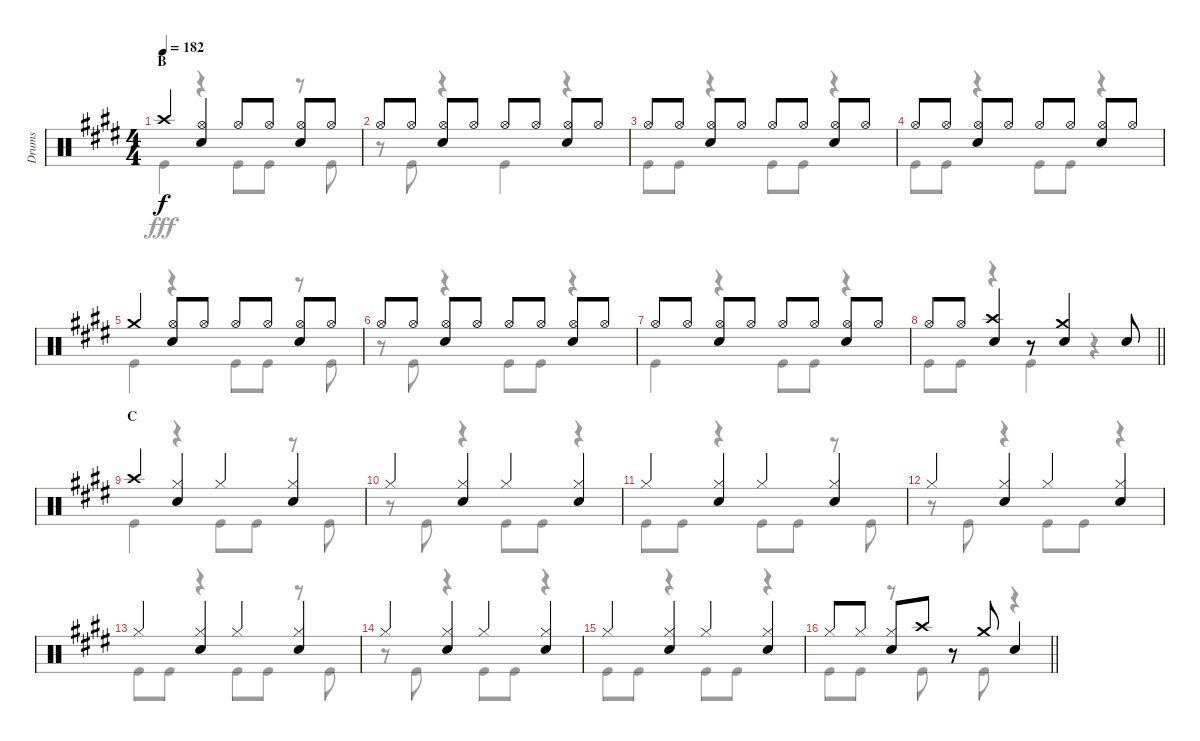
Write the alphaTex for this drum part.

\track ("Drums" "Drums") {instrument percussion}
\staff {score}
\articulation defaults
\voice
\ts (4 4)
\section ("" "B")
\tempo 182
\clef neutral
\ks e "Crash high (hit)".4{dy f}
("Hi-Hat (open)" "Snare (hit) 2").4 "Hi-Hat (open)".8 "Hi-Hat (open)".8 ("Hi-Hat (open)" "Snare (hit) 2").8 "Hi-Hat (open)".8 |
"Hi-Hat (open)".8 "Hi-Hat (open)".8 ("Hi-Hat (open)" "Snare (hit) 2").8 "Hi-Hat (open)".8 "Hi-Hat (open)".8 "Hi-Hat (open)".8 ("Hi-Hat (open)" "Snare (hit) 2").8 "Hi-Hat (open)".8 |
"Hi-Hat (open)".8 "Hi-Hat (open)".8 ("Hi-Hat (open)" "Snare (hit) 2").8 "Hi-Hat (open)".8 "Hi-Hat (open)".8 "Hi-Hat (open)".8 ("Hi-Hat (open)" "Snare (hit) 2").8 "Hi-Hat (open)".8 |
"Hi-Hat (open)".8 "Hi-Hat (open)".8 ("Hi-Hat (open)" "Snare (hit) 2").8 "Hi-Hat (open)".8 "Hi-Hat (open)".8 "Hi-Hat (open)".8 ("Hi-Hat (open)" "Snare (hit) 2").8 "Hi-Hat (open)".8 |
"Crash medium (hit)".4 ("Hi-Hat (open)" "Snare (hit) 2").8 "Hi-Hat (open)".8 "Hi-Hat (open)".8 "Hi-Hat (open)".8 ("Hi-Hat (open)" "Snare (hit) 2").8 "Hi-Hat (open)".8 |
"Hi-Hat (open)".8 "Hi-Hat (open)".8 ("Hi-Hat (open)" "Snare (hit) 2").8 "Hi-Hat (open)".8 "Hi-Hat (open)".8 "Hi-Hat (open)".8 ("Hi-Hat (open)" "Snare (hit) 2").8 "Hi-Hat (open)".8 |
"Hi-Hat (open)".8 "Hi-Hat (open)".8 ("Hi-Hat (open)" "Snare (hit) 2").8 "Hi-Hat (open)".8 "Hi-Hat (open)".8 "Hi-Hat (open)".8 ("Hi-Hat (open)" "Snare (hit) 2").8 "Hi-Hat (open)".8 |
\barLineRight lightlight "Hi-Hat (open)".8 "Hi-Hat (open)".8
("Crash high (hit)" "Snare (hit) 2").4 r.8 ("Crash medium (hit)" "Snare (hit) 2").4 "Snare (hit) 2".8 |
\section ("" "C")
"Crash high (hit)".4 ("Hi-Hat (closed)" "Snare (hit) 2").4 "Hi-Hat (closed)".4 ("Hi-Hat (closed)" "Snare (hit) 2").4 |
"Hi-Hat (closed)".4 ("Hi-Hat (closed)" "Snare (hit) 2").4 "Hi-Hat (closed)".4 ("Hi-Hat (closed)" "Snare (hit) 2").4 |
"Hi-Hat (closed)".4 ("Hi-Hat (closed)" "Snare (hit) 2").4 "Hi-Hat (closed)".4 ("Hi-Hat (closed)" "Snare (hit) 2").4 |
"Hi-Hat (closed)".4 ("Hi-Hat (closed)" "Snare (hit) 2").4 "Hi-Hat (closed)".4 ("Hi-Hat (closed)" "Snare (hit) 2").4 |
"Hi-Hat (closed)".4 ("Hi-Hat (closed)" "Snare (hit) 2").4 "Hi-Hat (closed)".4 ("Hi-Hat (closed)" "Snare (hit) 2").4 |
"Hi-Hat (closed)".4 ("Hi-Hat (closed)" "Snare (hit) 2").4 "Hi-Hat (closed)".4 ("Hi-Hat (closed)" "Snare (hit) 2").4 |
"Hi-Hat (closed)".4 ("Hi-Hat (closed)" "Snare (hit) 2").4 "Hi-Hat (closed)".4 ("Hi-Hat (closed)" "Snare (hit) 2").4 |
\barLineRight lightlight "Hi-Hat (closed)".8 "Hi-Hat (closed)".8
("Hi-Hat (closed)" "Snare (hit) 2").8 "Crash high (hit)".8 r.8 "Crash medium (hit)".8 "Snare (hit) 2".4
\voice
\clef neutral
\ottava regular
\simile none
\ks e "Kick (hit)".4{dy fff}
r.4 "Kick (hit)".8 "Kick (hit)".8 r.8 "Kick (hit)".8 |
r.8 "Kick (hit)".8 r.4 "Kick (hit)".4 r.4 |
"Kick (hit)".8 "Kick (hit)".8 r.4 "Kick (hit)".8 "Kick (hit)".8 r.4 |
"Kick (hit)".8 "Kick (hit)".8 r.4 "Kick (hit)".8 "Kick (hit)".8 r.4 |
"Kick (hit)".4 r.4 "Kick (hit)".8 "Kick (hit)".8 r.8 "Kick (hit)".8 |
r.8 "Kick (hit)".8 r.4 "Kick (hit)".8 "Kick (hit)".8 r.4 |
"Kick (hit)".4 r.4 "Kick (hit)".8 "Kick (hit)".8 r.4 |
\barLineRight lightlight "Kick (hit)".8 "Kick (hit)".8
r.4 "Kick (hit)".4 r.4 |
"Kick (hit)".4 r.4 "Kick (hit)".8 "Kick (hit)".8 r.8 "Kick (hit)".8 |
r.8 "Kick (hit)".8 r.4 "Kick (hit)".8 "Kick (hit)".8 r.4 |
"Kick (hit)".8 "Kick (hit)".8 r.4 "Kick (hit)".8 "Kick (hit)".8 r.8 "Kick (hit)".8 |
r.8 "Kick (hit)".8 r.4 "Kick (hit)".8 "Kick (hit)".8 r.4 |
"Kick (hit)".8 "Kick (hit)".8 r.4 "Kick (hit)".8 "Kick (hit)".8 r.8 "Kick (hit)".8 |
r.8 "Kick (hit)".8 r.4 "Kick (hit)".8 "Kick (hit)".8 r.4 |
"Kick (hit)".8 "Kick (hit)".8 r.4 "Kick (hit)".8 "Kick (hit)".8 r.4 |
\barLineRight lightlight "Kick (hit)".8 "Kick (hit)".8
r.8 "Kick (hit)".8 r.8 "Kick (hit)".8 r.4
